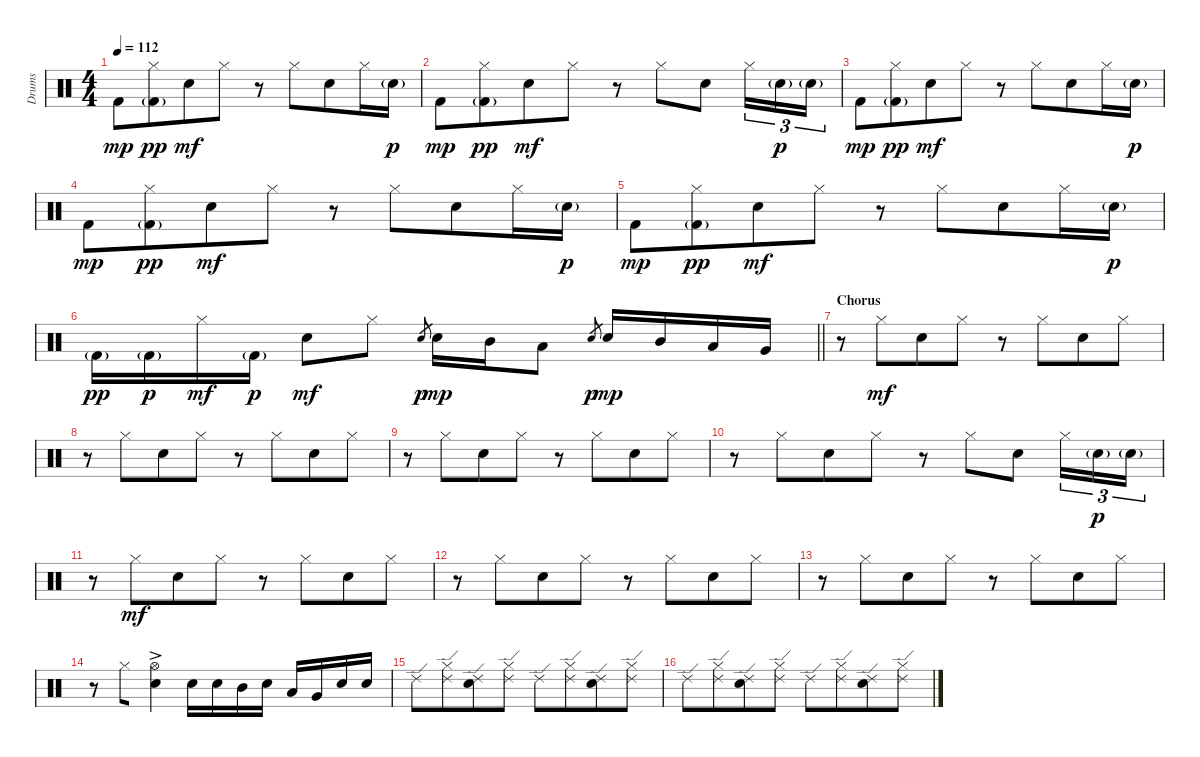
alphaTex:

\track ("Drums" "Drums") {instrument percussion}
\staff {score}
\articulation defaults
\ts (4 4)
\tempo 112
\clef neutral
\ks c "Kick (hit) 2".8{dy mp}
("Hi-Hat (closed)" "Kick (hit) 2"{g}).8{dy pp beam merge} "Electric Snare (hit)".8{dy mf} "Hi-Hat (closed)".8 r.8 "Hi-Hat (closed)".8{beam merge} "Electric Snare (hit)".8 "Hi-Hat (closed)".16 "Electric Snare (hit)"{g}.16{dy p} |
"Kick (hit) 2".8{dy mp} ("Hi-Hat (closed)" "Kick (hit) 2"{g}).8{dy pp beam merge} "Electric Snare (hit)".8{dy mf} "Hi-Hat (closed)".8 r.8 "Hi-Hat (closed)".8{beam merge} "Electric Snare (hit)".8 "Hi-Hat (closed)".16{tu (3 2)} "Electric Snare (hit)"{g}.16{tu (3 2) dy p} "Electric Snare (hit)"{g}.16{tu (3 2)} |
"Kick (hit) 2".8{dy mp} ("Hi-Hat (closed)" "Kick (hit) 2"{g}).8{dy pp beam merge} "Electric Snare (hit)".8{dy mf} "Hi-Hat (closed)".8 r.8 "Hi-Hat (closed)".8{beam merge} "Electric Snare (hit)".8 "Hi-Hat (closed)".16 "Electric Snare (hit)"{g}.16{dy p} |
"Kick (hit) 2".8{dy mp} ("Hi-Hat (closed)" "Kick (hit) 2"{g}).8{dy pp beam merge} "Electric Snare (hit)".8{dy mf} "Hi-Hat (closed)".8 r.8 "Hi-Hat (closed)".8{beam merge} "Electric Snare (hit)".8 "Hi-Hat (closed)".16 "Electric Snare (hit)"{g}.16{dy p} |
"Kick (hit) 2".8{dy mp} ("Hi-Hat (closed)" "Kick (hit) 2"{g}).8{dy pp beam merge} "Electric Snare (hit)".8{dy mf} "Hi-Hat (closed)".8 r.8 "Hi-Hat (closed)".8{beam merge} "Electric Snare (hit)".8 "Hi-Hat (closed)".16 "Electric Snare (hit)"{g}.16{dy p} |
\barLineRight lightlight "Kick (hit) 2"{g}.16{dy pp} "Kick (hit) 2"{g}.16{dy p} "Hi-Hat (closed)".16{dy mf} "Kick (hit) 2"{g}.16{dy p beam split} "Electric Snare (hit)".8{dy mf} "Hi-Hat (closed)".8 "Electric Snare (hit)".8{gr dy p} "Electric Snare (hit)".16{dy mp} "Mid Tom (hit)".16 "Low Tom (hit)".8 "Electric Snare (hit)".8{gr dy p} "Electric Snare (hit)".16{dy mp} "Mid Tom (hit)".16 "Low Tom (hit)".16 "Very Low Tom (hit)".16
|
\section ("" "Chorus")
r.8 "Hi-Hat (closed)".8{dy mf beam merge} "Electric Snare (hit)".8 "Hi-Hat (closed)".8 r.8 "Hi-Hat (closed)".8{beam merge} "Electric Snare (hit)".8 "Hi-Hat (closed)".8 |
r.8 "Hi-Hat (closed)".8{beam merge} "Electric Snare (hit)".8 "Hi-Hat (closed)".8 r.8 "Hi-Hat (closed)".8{beam merge} "Electric Snare (hit)".8 "Hi-Hat (closed)".8 |
r.8 "Hi-Hat (closed)".8{beam merge} "Electric Snare (hit)".8 "Hi-Hat (closed)".8 r.8 "Hi-Hat (closed)".8{beam merge} "Electric Snare (hit)".8 "Hi-Hat (closed)".8 |
r.8 "Hi-Hat (closed)".8{beam merge} "Electric Snare (hit)".8 "Hi-Hat (closed)".8 r.8 "Hi-Hat (closed)".8{beam merge} "Electric Snare (hit)".8 "Hi-Hat (closed)".16{tu (3 2)} "Electric Snare (hit)"{g}.16{tu (3 2) dy p} "Electric Snare (hit)"{g}.16{tu (3 2)} |
r.8 "Hi-Hat (closed)".8{dy mf beam merge} "Electric Snare (hit)".8 "Hi-Hat (closed)".8 r.8 "Hi-Hat (closed)".8{beam merge} "Electric Snare (hit)".8 "Hi-Hat (closed)".8 |
r.8 "Hi-Hat (closed)".8{beam merge} "Electric Snare (hit)".8 "Hi-Hat (closed)".8 r.8 "Hi-Hat (closed)".8{beam merge} "Electric Snare (hit)".8 "Hi-Hat (closed)".8 |
r.8 "Hi-Hat (closed)".8{beam merge} "Electric Snare (hit)".8 "Hi-Hat (closed)".8 r.8 "Hi-Hat (closed)".8{beam merge} "Electric Snare (hit)".8 "Hi-Hat (closed)".8 |
r.8 "Hi-Hat (closed)".8{beam merge} ("Hi-Hat (open)"{ac} "Electric Snare (hit)").4 "Electric Snare (hit)".16 "Electric Snare (hit)".16 "Mid Tom (hit)".16 "Electric Snare (hit)".16 "Low Tom (hit)".16 "Very Low Tom (hit)".16 "Electric Snare (hit)".16 "Electric Snare (hit)".16 |
"Ride (edge) 2".8 ("Hi-Hat (closed)" "Ride (edge) 2").8{beam merge} ("Ride (edge) 2" "Electric Snare (hit)").8 ("Hi-Hat (closed)" "Ride (edge) 2").8 "Ride (edge) 2".8 ("Hi-Hat (closed)" "Ride (edge) 2").8{beam merge} ("Ride (edge) 2" "Electric Snare (hit)").8 ("Hi-Hat (closed)" "Ride (edge) 2").8 |
"Ride (edge) 2".8 ("Hi-Hat (closed)" "Ride (edge) 2").8{beam merge} ("Ride (edge) 2" "Electric Snare (hit)").8 ("Hi-Hat (closed)" "Ride (edge) 2").8 "Ride (edge) 2".8 ("Hi-Hat (closed)" "Ride (edge) 2").8{beam merge} ("Ride (edge) 2" "Electric Snare (hit)").8 ("Hi-Hat (closed)" "Ride (edge) 2").8
